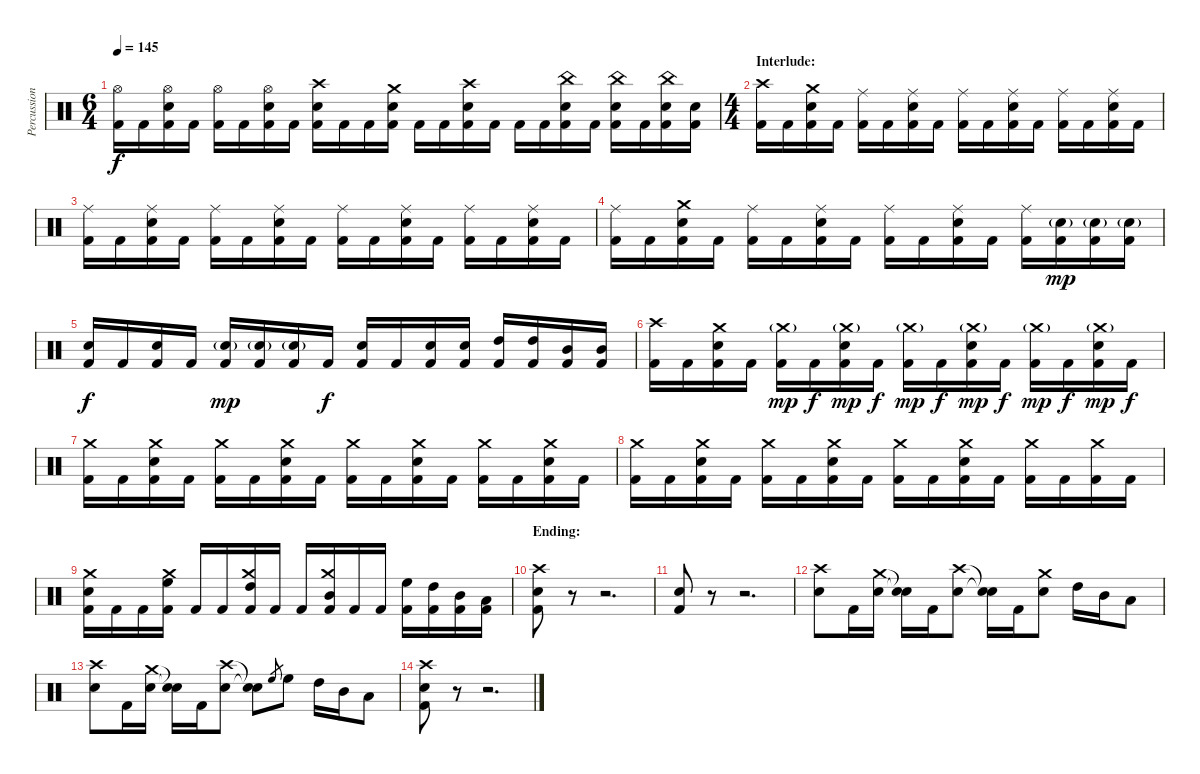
\track ("Percussion" "Percussion") {instrument percussion}
\staff {score}
\articulation defaults
\ts (6 4)
\tempo 145
\clef neutral
\ks c
("Hi-Hat (open)" "Kick (hit) 2").16{dy f} "Kick (hit) 2".16 ("Hi-Hat (open)" "Snare (hit) 2" "Kick (hit) 2").16 "Kick (hit) 2".16 ("Hi-Hat (open)" "Kick (hit) 2").16 "Kick (hit) 2".16 ("Hi-Hat (open)" "Snare (hit) 2" "Kick (hit) 2").16 "Kick (hit) 2".16 ("Crash high (hit)" "Snare (hit) 2" "Kick (hit) 2").16 "Kick (hit) 2".16 "Kick (hit) 2".16 ("Crash medium (hit)" "Snare (hit) 2" "Kick (hit) 2").16 "Kick (hit) 2".16 "Kick (hit) 2".16 ("Crash high (hit)" "Snare (hit) 2" "Kick (hit) 2").16 "Kick (hit) 2".16 "Kick (hit) 2".16 "Kick (hit) 2".16 ("China (hit)" "Snare (hit) 2" "Kick (hit) 2").16 "Kick (hit) 2".16 ("China (hit)" "Snare (hit) 2" "Kick (hit) 2").16 "Kick (hit) 2".16 ("China (hit)" "Snare (hit) 2" "Kick (hit) 2").16 ("Snare (hit) 2" "Kick (hit) 2").16 |
\ts (4 4)
\section ("" "Interlude:")
("Crash high (hit)" "Kick (hit) 2").16 "Kick (hit) 2".16 ("Crash medium (hit)" "Snare (hit) 2" "Kick (hit) 2").16 "Kick (hit) 2".16 ("Ride (middle)" "Kick (hit) 2").16 "Kick (hit) 2".16 ("Ride (middle)" "Snare (hit) 2" "Kick (hit) 2").16 "Kick (hit) 2".16 ("Ride (middle)" "Kick (hit) 2").16 "Kick (hit) 2".16 ("Ride (middle)" "Snare (hit) 2" "Kick (hit) 2").16 "Kick (hit) 2".16 ("Ride (middle)" "Kick (hit) 2").16 "Kick (hit) 2".16 ("Ride (middle)" "Snare (hit) 2" "Kick (hit) 2").16 "Kick (hit) 2".16 |
("Ride (middle)" "Kick (hit) 2").16 "Kick (hit) 2".16 ("Ride (middle)" "Snare (hit) 2" "Kick (hit) 2").16 "Kick (hit) 2".16 ("Ride (middle)" "Kick (hit) 2").16 "Kick (hit) 2".16 ("Ride (middle)" "Snare (hit) 2" "Kick (hit) 2").16 "Kick (hit) 2".16 ("Ride (middle)" "Kick (hit) 2").16 "Kick (hit) 2".16 ("Ride (middle)" "Snare (hit) 2" "Kick (hit) 2").16 "Kick (hit) 2".16 ("Ride (middle)" "Kick (hit) 2").16 "Kick (hit) 2".16 ("Ride (middle)" "Snare (hit) 2" "Kick (hit) 2").16 "Kick (hit) 2".16 |
("Ride (middle)" "Kick (hit) 2").16 "Kick (hit) 2".16 ("Crash medium (hit)" "Snare (hit) 2" "Kick (hit) 2").16 "Kick (hit) 2".16 ("Ride (middle)" "Kick (hit) 2").16 "Kick (hit) 2".16 ("Ride (middle)" "Snare (hit) 2" "Kick (hit) 2").16 "Kick (hit) 2".16 ("Ride (middle)" "Kick (hit) 2").16 "Kick (hit) 2".16 ("Ride (middle)" "Snare (hit) 2" "Kick (hit) 2").16 "Kick (hit) 2".16 ("Ride (middle)" "Kick (hit) 2").16 ("Snare (hit) 2"{g} "Kick (hit) 2").16{dy mp} ("Snare (hit) 2"{g} "Kick (hit) 2").16 ("Snare (hit) 2"{g} "Kick (hit) 2").16 |
("Snare (hit) 2" "Kick (hit) 2").16{dy f} "Kick (hit) 2".16 ("Snare (hit) 2" "Kick (hit) 2").16 "Kick (hit) 2".16 ("Snare (hit) 2"{g} "Kick (hit) 2").16{dy mp} ("Snare (hit) 2"{g} "Kick (hit) 2").16 ("Snare (hit) 2"{g} "Kick (hit) 2").16 "Kick (hit) 2".16{dy f} ("Snare (hit) 2" "Kick (hit) 2").16 "Kick (hit) 2".16 ("Snare (hit) 2" "Kick (hit) 2").16 ("Snare (hit) 2" "Kick (hit) 2").16 ("High Tom (hit)" "Kick (hit) 2").16 ("High Tom (hit)" "Kick (hit) 2").16 ("Mid Tom (hit)" "Kick (hit) 2").16 ("Mid Tom (hit)" "Kick (hit) 2").16 |
("Crash high (hit)" "Kick (hit) 2").16 "Kick (hit) 2".16 ("Crash medium (hit)" "Snare (hit) 2" "Kick (hit) 2").16 "Kick (hit) 2".16 ("Crash medium (hit)"{g} "Kick (hit) 2").16{dy mp} "Kick (hit) 2".16{dy f} ("Crash medium (hit)"{g} "Snare (hit) 2" "Kick (hit) 2").16{dy mp} "Kick (hit) 2".16{dy f} ("Crash medium (hit)"{g} "Kick (hit) 2").16{dy mp} "Kick (hit) 2".16{dy f} ("Crash medium (hit)"{g} "Snare (hit) 2" "Kick (hit) 2").16{dy mp} "Kick (hit) 2".16{dy f} ("Crash medium (hit)"{g} "Kick (hit) 2").16{dy mp} "Kick (hit) 2".16{dy f} ("Crash medium (hit)"{g} "Snare (hit) 2" "Kick (hit) 2").16{dy mp} "Kick (hit) 2".16{dy f} |
("Crash medium (hit)" "Kick (hit) 2").16 "Kick (hit) 2".16 ("Crash medium (hit)" "Snare (hit) 2" "Kick (hit) 2").16 "Kick (hit) 2".16 ("Crash medium (hit)" "Kick (hit) 2").16 "Kick (hit) 2".16 ("Crash medium (hit)" "Snare (hit) 2" "Kick (hit) 2").16 "Kick (hit) 2".16 ("Crash medium (hit)" "Kick (hit) 2").16 "Kick (hit) 2".16 ("Crash medium (hit)" "Snare (hit) 2" "Kick (hit) 2").16 "Kick (hit) 2".16 ("Crash medium (hit)" "Kick (hit) 2").16 "Kick (hit) 2".16 ("Crash medium (hit)" "Snare (hit) 2" "Kick (hit) 2").16 "Kick (hit) 2".16 |
("Crash medium (hit)" "Kick (hit) 2").16 "Kick (hit) 2".16 ("Crash medium (hit)" "Snare (hit) 2" "Kick (hit) 2").16 "Kick (hit) 2".16 ("Crash medium (hit)" "Kick (hit) 2").16 "Kick (hit) 2".16 ("Crash medium (hit)" "Snare (hit) 2" "Kick (hit) 2").16 "Kick (hit) 2".16 ("Crash medium (hit)" "Kick (hit) 2").16 "Kick (hit) 2".16 ("Crash medium (hit)" "Snare (hit) 2" "Kick (hit) 2").16 "Kick (hit) 2".16 ("Crash medium (hit)" "Kick (hit) 2").16 "Kick (hit) 2".16 ("Crash medium (hit)" "Kick (hit) 2").16 "Kick (hit) 2".16 |
("Crash medium (hit)" "Snare (hit) 2" "Kick (hit) 2").16 "Kick (hit) 2".16 "Kick (hit) 2".16 ("Crash medium (hit)" "High Floor Tom (hit)" "Kick (hit) 2").16 "Kick (hit) 2".16 "Kick (hit) 2".16 ("Crash medium (hit)" "High Tom (hit)" "Kick (hit) 2").16 "Kick (hit) 2".16 "Kick (hit) 2".16 ("Crash medium (hit)" "Mid Tom (hit)" "Kick (hit) 2").16 "Kick (hit) 2".16 "Kick (hit) 2".16 ("High Floor Tom (hit)" "Kick (hit) 2").16 ("High Tom (hit)" "Kick (hit) 2").16 ("Mid Tom (hit)" "Kick (hit) 2").16 ("Low Tom (hit)" "Kick (hit) 2").16 |
\section ("" "Ending:")
("Crash high (hit)" "Snare (hit) 2" "Kick (hit) 2").8 r.8 r.2{d} |
("Snare (hit) 2" "Kick (hit) 2").8 r.8 r.2{d} |
("Crash high (hit)" "Snare (hit) 2").8 "Kick (hit) 2".16 ("Crash medium (hit)" "Snare (hit) 2").16 ("Snare (hit)"{t} "Snare (hit)"{t}).16 "Kick (hit) 2".16 ("Crash high (hit)" "Snare (hit) 2").8 ("Snare (hit)"{t} "Snare (hit)"{t}).16 "Kick (hit) 2".16 ("Crash medium (hit)" "Snare (hit) 2").8 "High Tom (hit)".16 "Mid Tom (hit)".16 "Low Tom (hit)".8 |
("Crash high (hit)" "Snare (hit) 2").8 "Kick (hit) 2".16 ("Crash medium (hit)" "Snare (hit) 2").16 ("Snare (hit)"{t} "Snare (hit)"{t}).16 "Kick (hit) 2".16 ("Crash high (hit)" "Snare (hit) 2").8 ("Snare (hit)"{t} "Snare (hit)"{t}).8 "High Floor Tom (hit)".8{gr} "High Floor Tom (hit)".8 "High Tom (hit)".16 "Mid Tom (hit)".16 "Low Tom (hit)".8 |
("Crash high (hit)" "Snare (hit) 2" "Kick (hit) 2").8 r.8 r.2{d}
